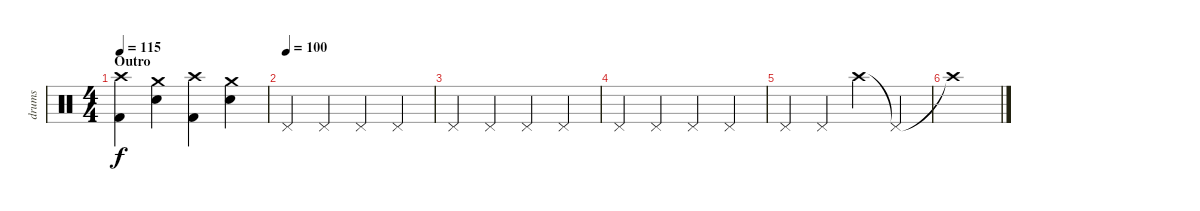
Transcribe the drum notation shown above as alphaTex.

\track ("drums" "drums") {instrument percussion}
\staff {score}
\articulation defaults
\ts (4 4)
\section ("" "Outro")
\tempo 115
\clef neutral
\ks c
("Crash high (hit)" "Kick (hit) 2").4{dy f} ("Crash medium (hit)" "Electric Snare (hit)").4 ("Crash high (hit)" "Kick (hit) 2").4 ("Crash medium (hit)" "Electric Snare (hit)").4 |
\tempo (100)
"Pedal Hi-Hat (hit)".4 "Pedal Hi-Hat (hit)".4 "Pedal Hi-Hat (hit)".4 "Pedal Hi-Hat (hit)".4 |
"Pedal Hi-Hat (hit)".4 "Pedal Hi-Hat (hit)".4 "Pedal Hi-Hat (hit)".4 "Pedal Hi-Hat (hit)".4 |
"Pedal Hi-Hat (hit)".4 "Pedal Hi-Hat (hit)".4 "Pedal Hi-Hat (hit)".4 "Pedal Hi-Hat (hit)".4 |
"Pedal Hi-Hat (hit)".4 "Pedal Hi-Hat (hit)".4 "Crash high (hit)".4 "Pedal Hi-Hat (hit)"{t}.4 |
"Crash high (hit)"{t}.1
